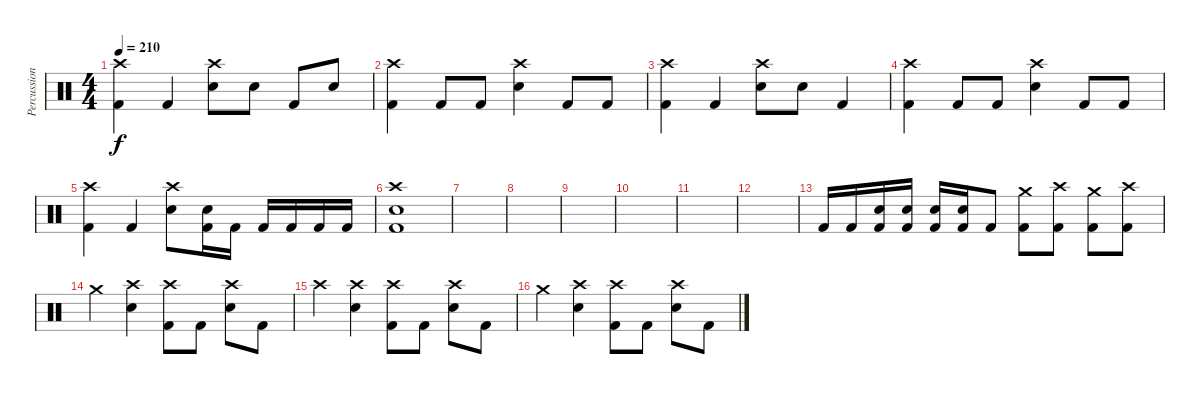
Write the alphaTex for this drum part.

\track ("Percussion" "Percussion") {instrument percussion}
\staff {score}
\articulation defaults
\ts (4 4)
\tempo 210
\clef neutral
\ks c
("Crash high (hit)" "Kick (hit) 2").4{dy f} "Kick (hit) 2".4 ("Crash high (hit)" "Electric Snare (hit)").8 "Electric Snare (hit)".8 "Kick (hit) 2".8 "Electric Snare (hit)".8 |
("Crash high (hit)" "Kick (hit) 2").4 "Kick (hit) 2".8 "Kick (hit) 2".8 ("Crash high (hit)" "Electric Snare (hit)").4 "Kick (hit) 2".8 "Kick (hit) 2".8 |
("Crash high (hit)" "Kick (hit) 2").4 "Kick (hit) 2".4 ("Crash high (hit)" "Electric Snare (hit)").8 "Electric Snare (hit)".8 "Kick (hit) 2".4 |
("Crash high (hit)" "Kick (hit) 2").4 "Kick (hit) 2".8 "Kick (hit) 2".8 ("Crash high (hit)" "Electric Snare (hit)").4 "Kick (hit) 2".8 "Kick (hit) 2".8 |
("Crash high (hit)" "Kick (hit) 2").4 "Kick (hit) 2".4 ("Crash high (hit)" "Electric Snare (hit)").8 ("Electric Snare (hit)" "Kick (hit) 2").16 "Kick (hit) 2".16 "Kick (hit) 2".16 "Kick (hit) 2".16 "Kick (hit) 2".16 "Kick (hit) 2".16 |
("Crash high (hit)" "Electric Snare (hit)" "Kick (hit) 2").1 |
|
|
|
|
|
|
"Kick (hit) 2".16 "Kick (hit) 2".16 ("Electric Snare (hit)" "Kick (hit) 2").16 ("Electric Snare (hit)" "Kick (hit) 2").16 ("Electric Snare (hit)" "Kick (hit) 2").16 ("Electric Snare (hit)" "Kick (hit) 2").16 "Kick (hit) 2".8 ("Crash medium (hit)" "Kick (hit) 2").8 ("Crash high (hit)" "Kick (hit) 2").8 ("Crash medium (hit)" "Kick (hit) 2").8 ("Crash high (hit)" "Kick (hit) 2").8 |
"Crash medium (hit)".4 ("Crash high (hit)" "Electric Snare (hit)").4 ("Crash high (hit)" "Kick (hit) 2").8 "Kick (hit) 2".8 ("Crash high (hit)" "Electric Snare (hit)").8 "Kick (hit) 2".8 |
"Crash high (hit)".4 ("Crash high (hit)" "Electric Snare (hit)").4 ("Crash high (hit)" "Kick (hit) 2").8 "Kick (hit) 2".8 ("Crash high (hit)" "Electric Snare (hit)").8 "Kick (hit) 2".8 |
"Crash medium (hit)".4 ("Crash high (hit)" "Electric Snare (hit)").4 ("Crash high (hit)" "Kick (hit) 2").8 "Kick (hit) 2".8 ("Crash high (hit)" "Electric Snare (hit)").8 "Kick (hit) 2".8
